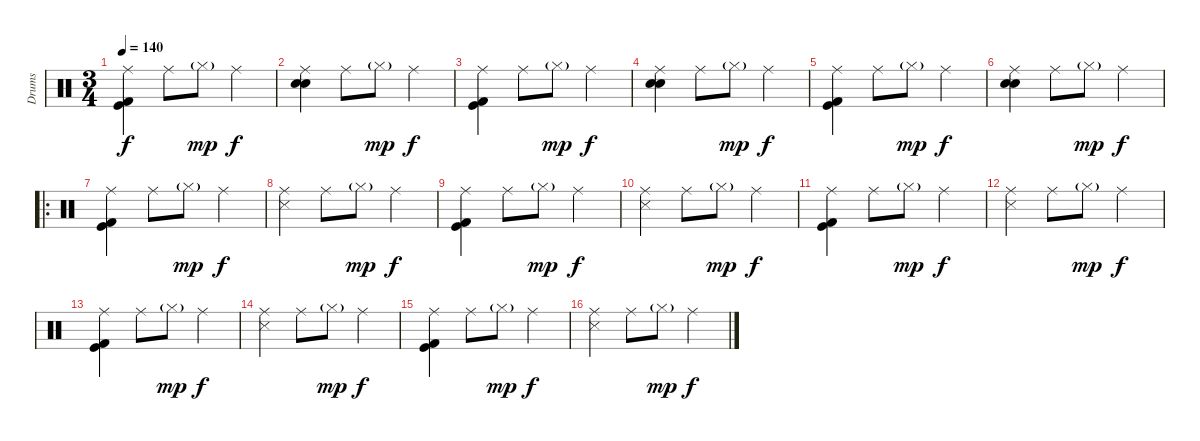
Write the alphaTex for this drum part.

\track ("Drums" "Drums") {instrument percussion}
\staff {score}
\articulation defaults
\ts (3 4)
\tempo 140
\clef neutral
\ks c
("Ride (middle)" "Kick (hit) 2" "Kick (hit)").4{dy f} "Ride (middle)".8 "Hi-Hat (closed)"{g}.8{dy mp} "Ride (middle)".4{dy f} |
("Ride (middle)" "Electric Snare (hit)" "Electric Snare (hit)").4 "Ride (middle)".8 "Hi-Hat (closed)"{g}.8{dy mp} "Ride (middle)".4{dy f} |
("Ride (middle)" "Kick (hit) 2" "Kick (hit)").4 "Ride (middle)".8 "Hi-Hat (closed)"{g}.8{dy mp} "Ride (middle)".4{dy f} |
("Ride (middle)" "Electric Snare (hit)" "Electric Snare (hit)").4 "Ride (middle)".8 "Hi-Hat (closed)"{g}.8{dy mp} "Ride (middle)".4{dy f} |
("Ride (middle)" "Kick (hit) 2" "Kick (hit)").4 "Ride (middle)".8 "Hi-Hat (closed)"{g}.8{dy mp} "Ride (middle)".4{dy f} |
("Ride (middle)" "Electric Snare (hit)" "Electric Snare (hit)").4 "Ride (middle)".8 "Hi-Hat (closed)"{g}.8{dy mp} "Ride (middle)".4{dy f} |
\ro
("Ride (middle)" "Kick (hit) 2" "Kick (hit)").4 "Ride (middle)".8 "Hi-Hat (closed)"{g}.8{dy mp} "Ride (middle)".4{dy f} |
("Ride (middle)" "Snare (side stick) 3").4 "Ride (middle)".8 "Hi-Hat (closed)"{g}.8{dy mp} "Ride (middle)".4{dy f} |
("Ride (middle)" "Kick (hit) 2" "Kick (hit)").4 "Ride (middle)".8 "Hi-Hat (closed)"{g}.8{dy mp} "Ride (middle)".4{dy f} |
("Ride (middle)" "Snare (side stick) 3").4 "Ride (middle)".8 "Hi-Hat (closed)"{g}.8{dy mp} "Ride (middle)".4{dy f} |
("Ride (middle)" "Kick (hit) 2" "Kick (hit)").4 "Ride (middle)".8 "Hi-Hat (closed)"{g}.8{dy mp} "Ride (middle)".4{dy f} |
("Ride (middle)" "Snare (side stick) 3").4 "Ride (middle)".8 "Hi-Hat (closed)"{g}.8{dy mp} "Ride (middle)".4{dy f} |
("Ride (middle)" "Kick (hit) 2" "Kick (hit)").4 "Ride (middle)".8 "Hi-Hat (closed)"{g}.8{dy mp} "Ride (middle)".4{dy f} |
("Ride (middle)" "Snare (side stick) 3").4 "Ride (middle)".8 "Hi-Hat (closed)"{g}.8{dy mp} "Ride (middle)".4{dy f} |
("Ride (middle)" "Kick (hit) 2" "Kick (hit)").4 "Ride (middle)".8 "Hi-Hat (closed)"{g}.8{dy mp} "Ride (middle)".4{dy f} |
("Ride (middle)" "Snare (side stick) 3").4 "Ride (middle)".8 "Hi-Hat (closed)"{g}.8{dy mp} "Ride (middle)".4{dy f}
